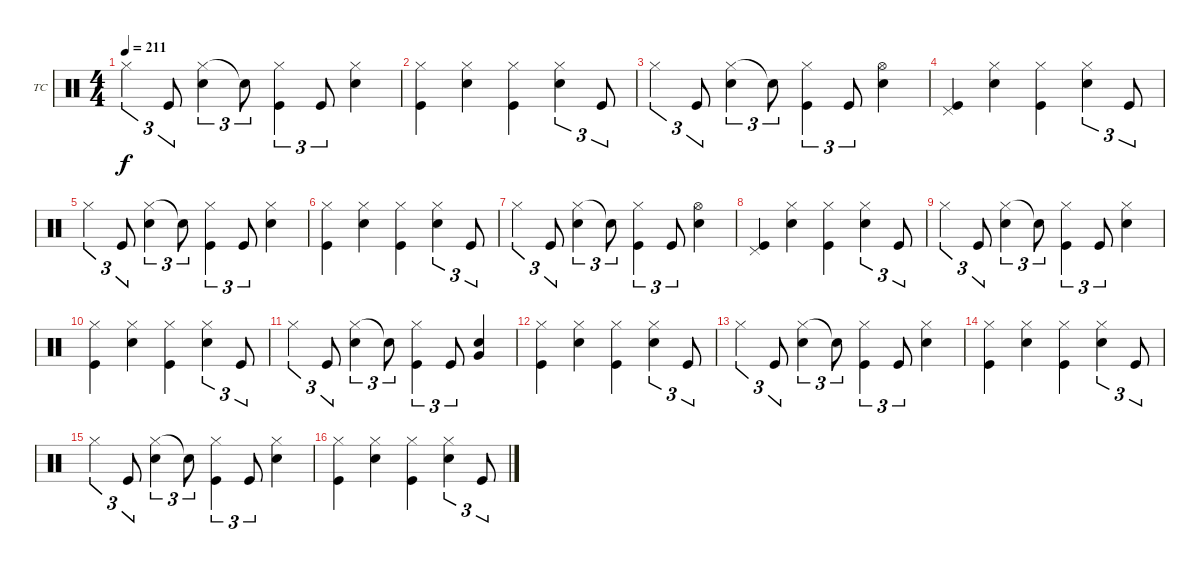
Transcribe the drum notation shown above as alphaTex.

\defaultSystemsLayout 4
\bracketExtendMode groupsimilarinstruments
\firstSystemTrackNameOrientation horizontal
\otherSystemsTrackNameOrientation horizontal
\track ("Drums - Tre Cool" "TC") {instrument percussion}
\staff {score}
\articulation defaults
\ts (4 4)
\tempo 211
\clef neutral
\ks c "Hi-Hat (closed)".4{tu (3 2) dy f} "Kick (hit)".8{tu (3 2)}
("Hi-Hat (closed)" "Snare (hit) 2").4{tu (3 2)} "Snare (hit) 2"{t}.8{tu (3 2)} ("Hi-Hat (closed)" "Kick (hit)").4{tu (3 2)} "Kick (hit)".8{tu (3 2)} ("Hi-Hat (closed)" "Snare (hit) 2").4 |
("Hi-Hat (closed)" "Kick (hit)").4 ("Hi-Hat (closed)" "Snare (hit) 2").4 ("Hi-Hat (closed)" "Kick (hit)").4 ("Hi-Hat (closed)" "Snare (hit) 2").4{tu (3 2)} "Kick (hit)".8{tu (3 2)} |
"Hi-Hat (closed)".4{tu (3 2)} "Kick (hit)".8{tu (3 2)} ("Hi-Hat (closed)" "Snare (hit) 2").4{tu (3 2)} "Snare (hit) 2"{t}.8{tu (3 2)} ("Hi-Hat (closed)" "Kick (hit)").4{tu (3 2)} "Kick (hit)".8{tu (3 2)} ("Hi-Hat (open)" "Snare (hit) 2").4 |
("Pedal Hi-Hat (hit)" "Kick (hit)").4 ("Hi-Hat (closed)" "Snare (hit) 2").4 ("Hi-Hat (closed)" "Kick (hit)").4 ("Hi-Hat (closed)" "Snare (hit) 2").4{tu (3 2)} "Kick (hit)".8{tu (3 2)} |
"Hi-Hat (closed)".4{tu (3 2)} "Kick (hit)".8{tu (3 2)} ("Hi-Hat (closed)" "Snare (hit) 2").4{tu (3 2)} "Snare (hit) 2"{t}.8{tu (3 2)} ("Hi-Hat (closed)" "Kick (hit)").4{tu (3 2)} "Kick (hit)".8{tu (3 2)} ("Hi-Hat (closed)" "Snare (hit) 2").4 |
("Hi-Hat (closed)" "Kick (hit)").4 ("Hi-Hat (closed)" "Snare (hit) 2").4 ("Hi-Hat (closed)" "Kick (hit)").4 ("Hi-Hat (closed)" "Snare (hit) 2").4{tu (3 2)} "Kick (hit)".8{tu (3 2)} |
"Hi-Hat (closed)".4{tu (3 2)} "Kick (hit)".8{tu (3 2)} ("Hi-Hat (closed)" "Snare (hit) 2").4{tu (3 2)} "Snare (hit) 2"{t}.8{tu (3 2)} ("Hi-Hat (closed)" "Kick (hit)").4{tu (3 2)} "Kick (hit)".8{tu (3 2)} ("Hi-Hat (open)" "Snare (hit) 2").4 |
("Pedal Hi-Hat (hit)" "Kick (hit)").4 ("Hi-Hat (closed)" "Snare (hit) 2").4 ("Hi-Hat (closed)" "Kick (hit)").4 ("Hi-Hat (closed)" "Snare (hit) 2").4{tu (3 2)} "Kick (hit)".8{tu (3 2)} |
"Hi-Hat (closed)".4{tu (3 2)} "Kick (hit)".8{tu (3 2)} ("Hi-Hat (closed)" "Snare (hit) 2").4{tu (3 2)} "Snare (hit) 2"{t}.8{tu (3 2)} ("Hi-Hat (closed)" "Kick (hit)").4{tu (3 2)} "Kick (hit)".8{tu (3 2)} ("Hi-Hat (closed)" "Snare (hit) 2").4 |
("Hi-Hat (closed)" "Kick (hit)").4 ("Hi-Hat (closed)" "Snare (hit) 2").4 ("Hi-Hat (closed)" "Kick (hit)").4 ("Hi-Hat (closed)" "Snare (hit) 2").4{tu (3 2)} "Kick (hit)".8{tu (3 2)} |
"Hi-Hat (closed)".4{tu (3 2)} "Kick (hit)".8{tu (3 2)} ("Hi-Hat (closed)" "Snare (hit) 2").4{tu (3 2)} "Snare (hit) 2"{t}.8{tu (3 2)} ("Hi-Hat (closed)" "Kick (hit)").4{tu (3 2)} "Kick (hit)".8{tu (3 2)} ("Very Low Tom (hit)" "Snare (hit) 2").4 |
("Hi-Hat (closed)" "Kick (hit)").4 ("Hi-Hat (closed)" "Snare (hit) 2").4 ("Hi-Hat (closed)" "Kick (hit)").4 ("Hi-Hat (closed)" "Snare (hit) 2").4{tu (3 2)} "Kick (hit)".8{tu (3 2)} |
"Hi-Hat (closed)".4{tu (3 2)} "Kick (hit)".8{tu (3 2)} ("Hi-Hat (closed)" "Snare (hit) 2").4{tu (3 2)} "Snare (hit) 2"{t}.8{tu (3 2)} ("Hi-Hat (closed)" "Kick (hit)").4{tu (3 2)} "Kick (hit)".8{tu (3 2)} ("Hi-Hat (closed)" "Snare (hit) 2").4 |
("Hi-Hat (closed)" "Kick (hit)").4 ("Hi-Hat (closed)" "Snare (hit) 2").4 ("Hi-Hat (closed)" "Kick (hit)").4 ("Hi-Hat (closed)" "Snare (hit) 2").4{tu (3 2)} "Kick (hit)".8{tu (3 2)} |
"Hi-Hat (closed)".4{tu (3 2)} "Kick (hit)".8{tu (3 2)} ("Hi-Hat (closed)" "Snare (hit) 2").4{tu (3 2)} "Snare (hit) 2"{t}.8{tu (3 2)} ("Hi-Hat (closed)" "Kick (hit)").4{tu (3 2)} "Kick (hit)".8{tu (3 2)} ("Hi-Hat (closed)" "Snare (hit) 2").4 |
("Hi-Hat (closed)" "Kick (hit)").4 ("Hi-Hat (closed)" "Snare (hit) 2").4 ("Hi-Hat (closed)" "Kick (hit)").4 ("Hi-Hat (closed)" "Snare (hit) 2").4{tu (3 2)} "Kick (hit)".8{tu (3 2)}
